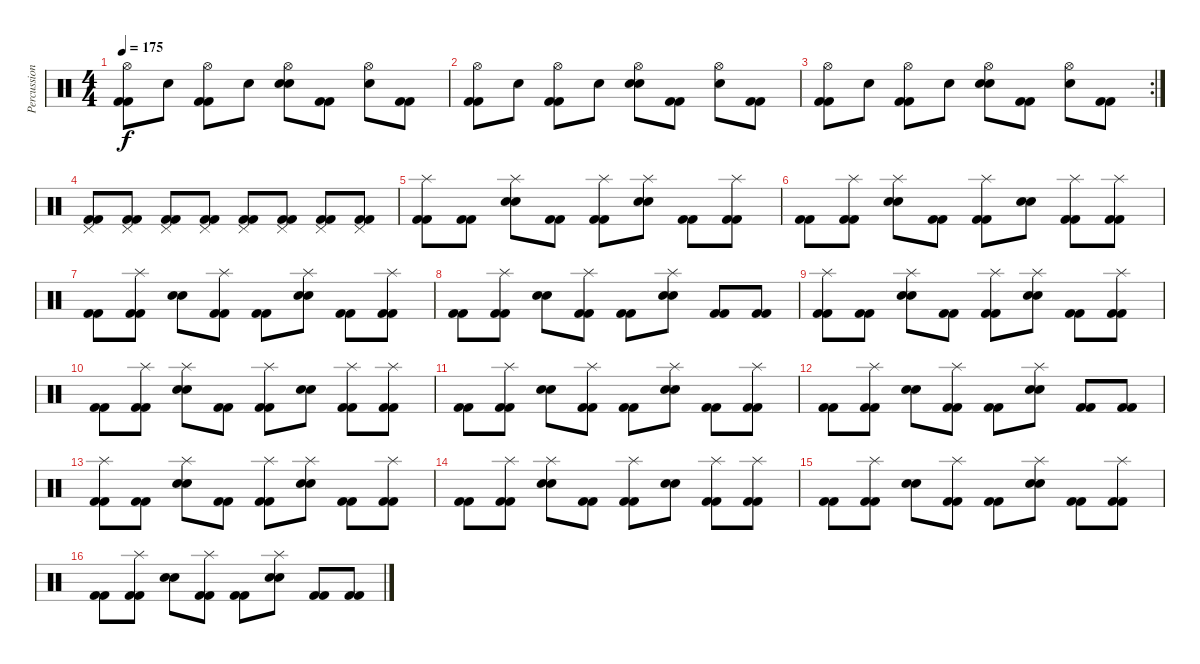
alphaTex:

\track ("Percussion" "Percussion") {instrument percussion}
\staff {score}
\articulation defaults
\ts (4 4)
\tempo 175
\clef neutral
\ks c
("Hi-Hat (open)" "Kick (hit) 2" "Kick (hit) 2").8{dy f} "Snare (hit)".8 ("Hi-Hat (open)" "Kick (hit) 2" "Kick (hit) 2").8 "Snare (hit)".8 ("Hi-Hat (open)" "Electric Snare (hit)" "Electric Snare (hit)").8 ("Kick (hit) 2" "Kick (hit) 2").8 ("Hi-Hat (open)" "Snare (hit)").8 ("Kick (hit) 2" "Kick (hit) 2").8 |
("Hi-Hat (open)" "Kick (hit) 2" "Kick (hit) 2").8 "Snare (hit)".8 ("Hi-Hat (open)" "Kick (hit) 2" "Kick (hit) 2").8 "Snare (hit)".8 ("Hi-Hat (open)" "Electric Snare (hit)" "Electric Snare (hit)").8 ("Kick (hit) 2" "Kick (hit) 2").8 ("Hi-Hat (open)" "Snare (hit)").8 ("Kick (hit) 2" "Kick (hit) 2").8 |
\rc 2
("Hi-Hat (open)" "Kick (hit) 2" "Kick (hit) 2").8 "Snare (hit)".8 ("Hi-Hat (open)" "Kick (hit) 2" "Kick (hit) 2").8 "Snare (hit)".8 ("Hi-Hat (open)" "Electric Snare (hit)" "Electric Snare (hit)").8 ("Kick (hit) 2" "Kick (hit) 2").8 ("Hi-Hat (open)" "Snare (hit)").8 ("Kick (hit) 2" "Kick (hit) 2").8 |
("Kick (hit) 2" "Kick (hit) 2" "Pedal Hi-Hat (hit)").8 ("Kick (hit) 2" "Kick (hit) 2" "Pedal Hi-Hat (hit)").8 ("Kick (hit) 2" "Kick (hit) 2" "Pedal Hi-Hat (hit)").8 ("Kick (hit) 2" "Kick (hit) 2" "Pedal Hi-Hat (hit)").8 ("Kick (hit) 2" "Kick (hit) 2" "Pedal Hi-Hat (hit)").8 ("Kick (hit) 2" "Kick (hit) 2" "Pedal Hi-Hat (hit)").8 ("Kick (hit) 2" "Kick (hit) 2" "Pedal Hi-Hat (hit)").8 ("Kick (hit) 2" "Kick (hit) 2" "Pedal Hi-Hat (hit)").8 |
("Splash (hit)" "Kick (hit) 2" "Kick (hit) 2").8 ("Kick (hit) 2" "Kick (hit) 2").8 ("Splash (hit)" "Electric Snare (hit)" "Electric Snare (hit)").8 ("Kick (hit) 2" "Kick (hit) 2").8 ("Splash (hit)" "Kick (hit) 2" "Kick (hit) 2").8 ("Splash (hit)" "Electric Snare (hit)" "Electric Snare (hit)").8 ("Kick (hit) 2" "Kick (hit) 2").8 ("Splash (hit)" "Kick (hit) 2" "Kick (hit) 2").8 |
("Kick (hit) 2" "Kick (hit) 2").8 ("Splash (hit)" "Kick (hit) 2" "Kick (hit) 2").8 ("Splash (hit)" "Electric Snare (hit)" "Electric Snare (hit)").8 ("Kick (hit) 2" "Kick (hit) 2").8 ("Splash (hit)" "Kick (hit) 2" "Kick (hit) 2").8 ("Electric Snare (hit)" "Electric Snare (hit)").8 ("Splash (hit)" "Kick (hit) 2" "Kick (hit) 2").8 ("Splash (hit)" "Kick (hit) 2" "Kick (hit) 2").8 |
("Kick (hit) 2" "Kick (hit) 2").8 ("Splash (hit)" "Kick (hit) 2" "Kick (hit) 2").8 ("Electric Snare (hit)" "Electric Snare (hit)").8 ("Splash (hit)" "Kick (hit) 2" "Kick (hit) 2").8 ("Kick (hit) 2" "Kick (hit) 2").8 ("Splash (hit)" "Electric Snare (hit)" "Electric Snare (hit)").8 ("Kick (hit) 2" "Kick (hit) 2").8 ("Splash (hit)" "Kick (hit) 2" "Kick (hit) 2").8 |
("Kick (hit) 2" "Kick (hit) 2").8 ("Splash (hit)" "Kick (hit) 2" "Kick (hit) 2").8 ("Electric Snare (hit)" "Electric Snare (hit)").8 ("Splash (hit)" "Kick (hit) 2" "Kick (hit) 2").8 ("Kick (hit) 2" "Kick (hit) 2").8 ("Splash (hit)" "Electric Snare (hit)" "Electric Snare (hit)").8 ("Kick (hit) 2" "Kick (hit) 2").8 ("Kick (hit) 2" "Kick (hit) 2").8 |
("Splash (hit)" "Kick (hit) 2" "Kick (hit) 2").8 ("Kick (hit) 2" "Kick (hit) 2").8 ("Splash (hit)" "Electric Snare (hit)" "Electric Snare (hit)").8 ("Kick (hit) 2" "Kick (hit) 2").8 ("Splash (hit)" "Kick (hit) 2" "Kick (hit) 2").8 ("Splash (hit)" "Electric Snare (hit)" "Electric Snare (hit)").8 ("Kick (hit) 2" "Kick (hit) 2").8 ("Splash (hit)" "Kick (hit) 2" "Kick (hit) 2").8 |
("Kick (hit) 2" "Kick (hit) 2").8 ("Splash (hit)" "Kick (hit) 2" "Kick (hit) 2").8 ("Splash (hit)" "Electric Snare (hit)" "Electric Snare (hit)").8 ("Kick (hit) 2" "Kick (hit) 2").8 ("Splash (hit)" "Kick (hit) 2" "Kick (hit) 2").8 ("Electric Snare (hit)" "Electric Snare (hit)").8 ("Splash (hit)" "Kick (hit) 2" "Kick (hit) 2").8 ("Splash (hit)" "Kick (hit) 2" "Kick (hit) 2").8 |
("Kick (hit) 2" "Kick (hit) 2").8 ("Splash (hit)" "Kick (hit) 2" "Kick (hit) 2").8 ("Electric Snare (hit)" "Electric Snare (hit)").8 ("Splash (hit)" "Kick (hit) 2" "Kick (hit) 2").8 ("Kick (hit) 2" "Kick (hit) 2").8 ("Splash (hit)" "Electric Snare (hit)" "Electric Snare (hit)").8 ("Kick (hit) 2" "Kick (hit) 2").8 ("Splash (hit)" "Kick (hit) 2" "Kick (hit) 2").8 |
("Kick (hit) 2" "Kick (hit) 2").8 ("Splash (hit)" "Kick (hit) 2" "Kick (hit) 2").8 ("Electric Snare (hit)" "Electric Snare (hit)").8 ("Splash (hit)" "Kick (hit) 2" "Kick (hit) 2").8 ("Kick (hit) 2" "Kick (hit) 2").8 ("Splash (hit)" "Electric Snare (hit)" "Electric Snare (hit)").8 ("Kick (hit) 2" "Kick (hit) 2").8 ("Kick (hit) 2" "Kick (hit) 2").8 |
("Splash (hit)" "Kick (hit) 2" "Kick (hit) 2").8 ("Kick (hit) 2" "Kick (hit) 2").8 ("Splash (hit)" "Electric Snare (hit)" "Electric Snare (hit)").8 ("Kick (hit) 2" "Kick (hit) 2").8 ("Splash (hit)" "Kick (hit) 2" "Kick (hit) 2").8 ("Splash (hit)" "Electric Snare (hit)" "Electric Snare (hit)").8 ("Kick (hit) 2" "Kick (hit) 2").8 ("Splash (hit)" "Kick (hit) 2" "Kick (hit) 2").8 |
("Kick (hit) 2" "Kick (hit) 2").8 ("Splash (hit)" "Kick (hit) 2" "Kick (hit) 2").8 ("Splash (hit)" "Electric Snare (hit)" "Electric Snare (hit)").8 ("Kick (hit) 2" "Kick (hit) 2").8 ("Splash (hit)" "Kick (hit) 2" "Kick (hit) 2").8 ("Electric Snare (hit)" "Electric Snare (hit)").8 ("Splash (hit)" "Kick (hit) 2" "Kick (hit) 2").8 ("Splash (hit)" "Kick (hit) 2" "Kick (hit) 2").8 |
("Kick (hit) 2" "Kick (hit) 2").8 ("Splash (hit)" "Kick (hit) 2" "Kick (hit) 2").8 ("Electric Snare (hit)" "Electric Snare (hit)").8 ("Splash (hit)" "Kick (hit) 2" "Kick (hit) 2").8 ("Kick (hit) 2" "Kick (hit) 2").8 ("Splash (hit)" "Electric Snare (hit)" "Electric Snare (hit)").8 ("Kick (hit) 2" "Kick (hit) 2").8 ("Splash (hit)" "Kick (hit) 2" "Kick (hit) 2").8 |
("Kick (hit) 2" "Kick (hit) 2").8 ("Splash (hit)" "Kick (hit) 2" "Kick (hit) 2").8 ("Electric Snare (hit)" "Electric Snare (hit)").8 ("Splash (hit)" "Kick (hit) 2" "Kick (hit) 2").8 ("Kick (hit) 2" "Kick (hit) 2").8 ("Splash (hit)" "Electric Snare (hit)" "Electric Snare (hit)").8 ("Kick (hit) 2" "Kick (hit) 2").8 ("Kick (hit) 2" "Kick (hit) 2").8
